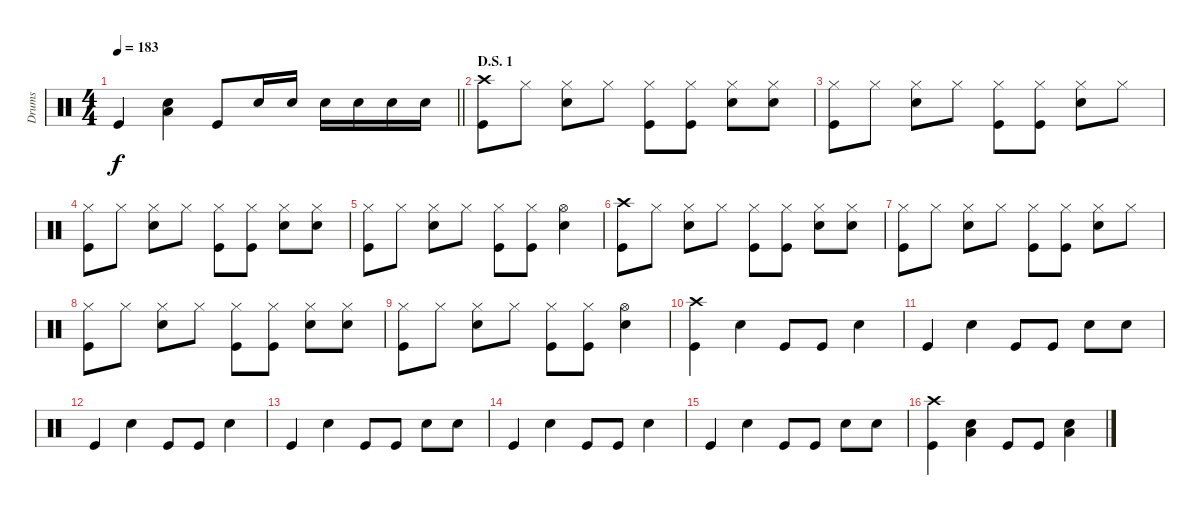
\track ("Drums" "Drums") {instrument percussion}
\staff {score}
\articulation defaults
\ts (4 4)
\tempo 183
\clef neutral
\barLineRight lightlight
\ks c "Kick (hit)".4{dy f}
("Electric Snare (hit)" "Low Tom (hit)").4 "Kick (hit)".8 "Electric Snare (hit)".16 "Electric Snare (hit)".16 "Electric Snare (hit)".16 "Electric Snare (hit)".16 "Electric Snare (hit)".16 "Electric Snare (hit)".16 |
\section ("" "D.S. 1")
("Crash high (hit)" "Kick (hit)").8 "Hi-Hat (closed)".8 ("Hi-Hat (closed)" "Electric Snare (hit)").8 "Hi-Hat (closed)".8 ("Hi-Hat (closed)" "Kick (hit)").8 ("Hi-Hat (closed)" "Kick (hit)").8 ("Hi-Hat (closed)" "Electric Snare (hit)").8 ("Hi-Hat (closed)" "Electric Snare (hit)").8 |
("Hi-Hat (closed)" "Kick (hit)").8 "Hi-Hat (closed)".8 ("Hi-Hat (closed)" "Electric Snare (hit)").8 "Hi-Hat (closed)".8 ("Hi-Hat (closed)" "Kick (hit)").8 ("Hi-Hat (closed)" "Kick (hit)").8 ("Hi-Hat (closed)" "Electric Snare (hit)").8 "Hi-Hat (closed)".8 |
("Hi-Hat (closed)" "Kick (hit)").8 "Hi-Hat (closed)".8 ("Hi-Hat (closed)" "Electric Snare (hit)").8 "Hi-Hat (closed)".8 ("Hi-Hat (closed)" "Kick (hit)").8 ("Hi-Hat (closed)" "Kick (hit)").8 ("Hi-Hat (closed)" "Electric Snare (hit)").8 ("Hi-Hat (closed)" "Electric Snare (hit)").8 |
("Hi-Hat (closed)" "Kick (hit)").8 "Hi-Hat (closed)".8 ("Hi-Hat (closed)" "Electric Snare (hit)").8 "Hi-Hat (closed)".8 ("Hi-Hat (closed)" "Kick (hit)").8 ("Hi-Hat (closed)" "Kick (hit)").8 ("Hi-Hat (open)" "Electric Snare (hit)").4 |
("Crash high (hit)" "Kick (hit)").8 "Hi-Hat (closed)".8 ("Hi-Hat (closed)" "Electric Snare (hit)").8 "Hi-Hat (closed)".8 ("Hi-Hat (closed)" "Kick (hit)").8 ("Hi-Hat (closed)" "Kick (hit)").8 ("Hi-Hat (closed)" "Electric Snare (hit)").8 ("Hi-Hat (closed)" "Electric Snare (hit)").8 |
("Hi-Hat (closed)" "Kick (hit)").8 "Hi-Hat (closed)".8 ("Hi-Hat (closed)" "Electric Snare (hit)").8 "Hi-Hat (closed)".8 ("Hi-Hat (closed)" "Kick (hit)").8 ("Hi-Hat (closed)" "Kick (hit)").8 ("Hi-Hat (closed)" "Electric Snare (hit)").8 "Hi-Hat (closed)".8 |
("Hi-Hat (closed)" "Kick (hit)").8 "Hi-Hat (closed)".8 ("Hi-Hat (closed)" "Electric Snare (hit)").8 "Hi-Hat (closed)".8 ("Hi-Hat (closed)" "Kick (hit)").8 ("Hi-Hat (closed)" "Kick (hit)").8 ("Hi-Hat (closed)" "Electric Snare (hit)").8 ("Hi-Hat (closed)" "Electric Snare (hit)").8 |
("Hi-Hat (closed)" "Kick (hit)").8 "Hi-Hat (closed)".8 ("Hi-Hat (closed)" "Electric Snare (hit)").8 "Hi-Hat (closed)".8 ("Hi-Hat (closed)" "Kick (hit)").8 ("Hi-Hat (closed)" "Kick (hit)").8 ("Hi-Hat (open)" "Electric Snare (hit)").4 |
("Crash high (hit)" "Kick (hit)").4 "Electric Snare (hit)".4 "Kick (hit)".8 "Kick (hit)".8 "Electric Snare (hit)".4 |
"Kick (hit)".4 "Electric Snare (hit)".4 "Kick (hit)".8 "Kick (hit)".8 "Electric Snare (hit)".8 "Electric Snare (hit)".8 |
"Kick (hit)".4 "Electric Snare (hit)".4 "Kick (hit)".8 "Kick (hit)".8 "Electric Snare (hit)".4 |
"Kick (hit)".4 "Electric Snare (hit)".4 "Kick (hit)".8 "Kick (hit)".8 "Electric Snare (hit)".8 "Electric Snare (hit)".8 |
"Kick (hit)".4 "Electric Snare (hit)".4 "Kick (hit)".8 "Kick (hit)".8 "Electric Snare (hit)".4 |
"Kick (hit)".4 "Electric Snare (hit)".4 "Kick (hit)".8 "Kick (hit)".8 "Electric Snare (hit)".8 "Electric Snare (hit)".8 |
("Crash high (hit)" "Kick (hit)").4 ("Electric Snare (hit)" "Low Tom (hit)").4 "Kick (hit)".8 "Kick (hit)".8 ("Electric Snare (hit)" "Low Tom (hit)").4
